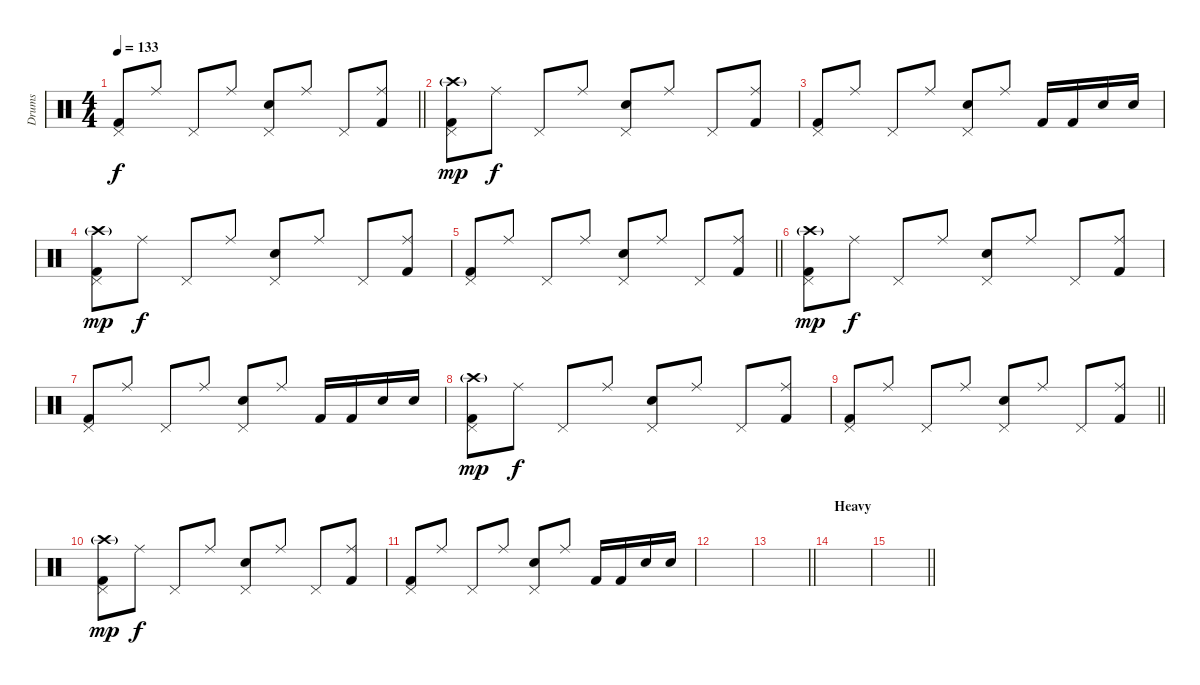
\track ("Drums" "Drums") {instrument percussion}
\staff {score}
\articulation defaults
\ts (4 4)
\tempo 133
\clef neutral
\barLineRight lightlight
\ks c
("Pedal Hi-Hat (hit)" "Kick (hit) 2").8{dy f} "Ride (middle)".8 "Pedal Hi-Hat (hit)".8 "Ride (middle)".8 ("Pedal Hi-Hat (hit)" "Snare (hit) 2").8 "Ride (middle)".8 "Pedal Hi-Hat (hit)".8 ("Ride (middle)" "Kick (hit) 2").8 |
\section ("" "")
("Crash high (hit)"{g} "Pedal Hi-Hat (hit)" "Kick (hit) 2").8{dy mp} "Ride (middle)".8{dy f} "Pedal Hi-Hat (hit)".8 "Ride (middle)".8 ("Pedal Hi-Hat (hit)" "Snare (hit) 2").8 "Ride (middle)".8 "Pedal Hi-Hat (hit)".8 ("Ride (middle)" "Kick (hit) 2").8 |
("Pedal Hi-Hat (hit)" "Kick (hit) 2").8 "Ride (middle)".8 "Pedal Hi-Hat (hit)".8 "Ride (middle)".8 ("Pedal Hi-Hat (hit)" "Snare (hit) 2").8 "Ride (middle)".8 "Kick (hit) 2".16 "Kick (hit) 2".16 "Snare (hit) 2".16 "Snare (hit) 2".16 |
("Crash high (hit)"{g} "Pedal Hi-Hat (hit)" "Kick (hit) 2").8{dy mp} "Ride (middle)".8{dy f} "Pedal Hi-Hat (hit)".8 "Ride (middle)".8 ("Pedal Hi-Hat (hit)" "Snare (hit) 2").8 "Ride (middle)".8 "Pedal Hi-Hat (hit)".8 ("Ride (middle)" "Kick (hit) 2").8 |
\barLineRight lightlight
("Pedal Hi-Hat (hit)" "Kick (hit) 2").8 "Ride (middle)".8 "Pedal Hi-Hat (hit)".8 "Ride (middle)".8 ("Pedal Hi-Hat (hit)" "Snare (hit) 2").8 "Ride (middle)".8 "Pedal Hi-Hat (hit)".8 ("Ride (middle)" "Kick (hit) 2").8 |
\section ("" "")
("Crash high (hit)"{g} "Pedal Hi-Hat (hit)" "Kick (hit) 2").8{dy mp} "Ride (middle)".8{dy f} "Pedal Hi-Hat (hit)".8 "Ride (middle)".8 ("Pedal Hi-Hat (hit)" "Snare (hit) 2").8 "Ride (middle)".8 "Pedal Hi-Hat (hit)".8 ("Ride (middle)" "Kick (hit) 2").8 |
("Pedal Hi-Hat (hit)" "Kick (hit) 2").8 "Ride (middle)".8 "Pedal Hi-Hat (hit)".8 "Ride (middle)".8 ("Pedal Hi-Hat (hit)" "Snare (hit) 2").8 "Ride (middle)".8 "Kick (hit) 2".16 "Kick (hit) 2".16 "Snare (hit) 2".16 "Snare (hit) 2".16 |
("Crash high (hit)"{g} "Pedal Hi-Hat (hit)" "Kick (hit) 2").8{dy mp} "Ride (middle)".8{dy f} "Pedal Hi-Hat (hit)".8 "Ride (middle)".8 ("Pedal Hi-Hat (hit)" "Snare (hit) 2").8 "Ride (middle)".8 "Pedal Hi-Hat (hit)".8 ("Ride (middle)" "Kick (hit) 2").8 |
\barLineRight lightlight
("Pedal Hi-Hat (hit)" "Kick (hit) 2").8 "Ride (middle)".8 "Pedal Hi-Hat (hit)".8 "Ride (middle)".8 ("Pedal Hi-Hat (hit)" "Snare (hit) 2").8 "Ride (middle)".8 "Pedal Hi-Hat (hit)".8 ("Ride (middle)" "Kick (hit) 2").8 |
\section ("" "")
("Crash high (hit)"{g} "Pedal Hi-Hat (hit)" "Kick (hit) 2").8{dy mp} "Ride (middle)".8{dy f} "Pedal Hi-Hat (hit)".8 "Ride (middle)".8 ("Pedal Hi-Hat (hit)" "Snare (hit) 2").8 "Ride (middle)".8 "Pedal Hi-Hat (hit)".8 ("Ride (middle)" "Kick (hit) 2").8 |
("Pedal Hi-Hat (hit)" "Kick (hit) 2").8 "Ride (middle)".8 "Pedal Hi-Hat (hit)".8 "Ride (middle)".8 ("Pedal Hi-Hat (hit)" "Snare (hit) 2").8 "Ride (middle)".8 "Kick (hit) 2".16 "Kick (hit) 2".16 "Snare (hit) 2".16 "Snare (hit) 2".16 |
|
\barLineRight lightlight
|
\section ("" "Heavy")
|
\barLineRight lightlight
